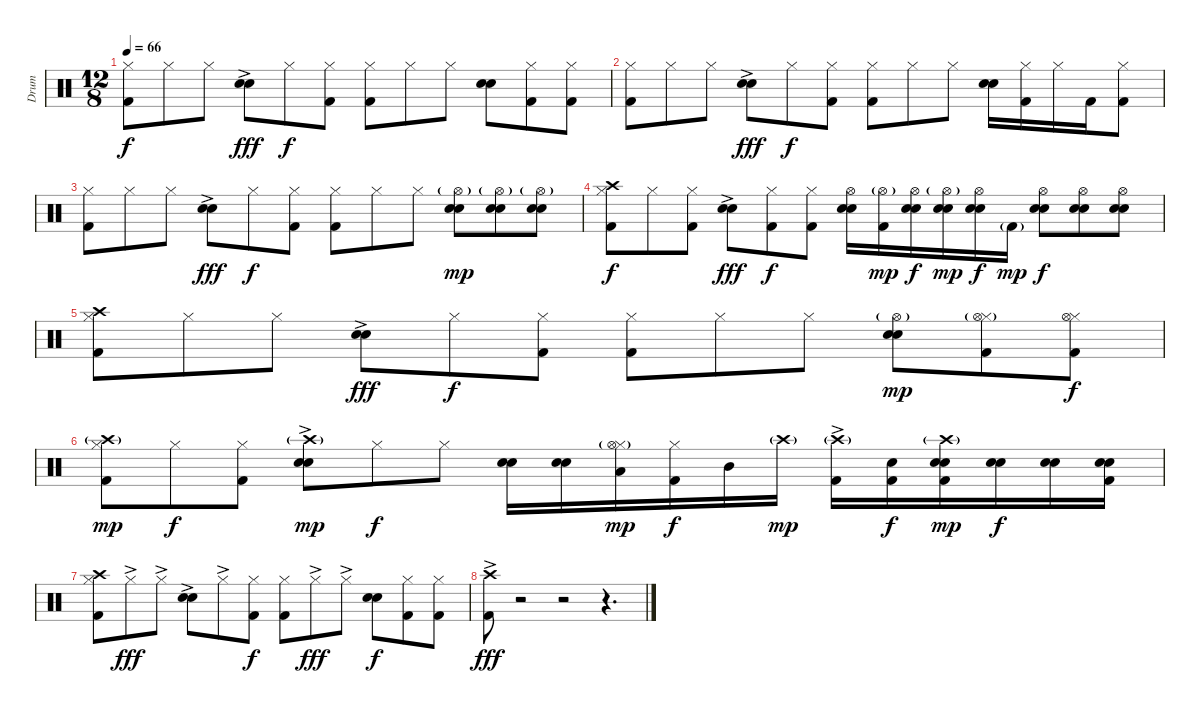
\track ("Drum" "Drum") {instrument percussion}
\staff {score}
\articulation defaults
\ts (12 8)
\tempo 66
\clef neutral
\ks c
("Hi-Hat (closed)" "Kick (hit) 2").8{dy f} "Hi-Hat (closed)".8 "Hi-Hat (closed)".8 ("Electric Snare (hit)"{ac} "Hand Clap (hit)").8{dy fff} "Hi-Hat (closed)".8{dy f} ("Hi-Hat (closed)" "Kick (hit) 2").8 ("Hi-Hat (closed)" "Kick (hit) 2").8 "Hi-Hat (closed)".8 "Hi-Hat (closed)".8 ("Electric Snare (hit)" "Hand Clap (hit)").8 ("Hi-Hat (closed)" "Kick (hit) 2").8 ("Hi-Hat (closed)" "Kick (hit) 2").8 |
("Hi-Hat (closed)" "Kick (hit) 2").8 "Hi-Hat (closed)".8 "Hi-Hat (closed)".8 ("Electric Snare (hit)"{ac} "Hand Clap (hit)").8{dy fff} "Hi-Hat (closed)".8{dy f} ("Hi-Hat (closed)" "Kick (hit) 2").8 ("Hi-Hat (closed)" "Kick (hit) 2").8 "Hi-Hat (closed)".8 "Hi-Hat (closed)".8 ("Electric Snare (hit)" "Hand Clap (hit)").16 ("Hi-Hat (closed)" "Kick (hit) 2").16 "Hi-Hat (closed)".16 "Kick (hit) 2".16 ("Hi-Hat (closed)" "Kick (hit) 2").8 |
("Hi-Hat (closed)" "Kick (hit) 2").8 "Hi-Hat (closed)".8 "Hi-Hat (closed)".8 ("Electric Snare (hit)"{ac} "Hand Clap (hit)").8{dy fff} "Hi-Hat (closed)".8{dy f} ("Hi-Hat (closed)" "Kick (hit) 2").8 ("Hi-Hat (closed)" "Kick (hit) 2").8 "Hi-Hat (closed)".8 "Hi-Hat (closed)".8 ("Electric Snare (hit)" "Hand Clap (hit)" "Hi-Hat (open)"{g}).8{dy mp} ("Electric Snare (hit)" "Hand Clap (hit)" "Hi-Hat (open)"{g}).8 ("Electric Snare (hit)" "Hand Clap (hit)" "Hi-Hat (open)"{g}).8 |
("Hi-Hat (closed)" "Kick (hit) 2" "Crash high (hit)").8{dy f} "Hi-Hat (closed)".8 ("Hi-Hat (closed)" "Kick (hit) 2").8 ("Electric Snare (hit)"{ac} "Hand Clap (hit)").8{dy fff} ("Hi-Hat (closed)" "Kick (hit) 2").8{dy f} ("Hi-Hat (closed)" "Kick (hit) 2").8 ("Electric Snare (hit)" "Hand Clap (hit)" "Hi-Hat (open)").16 ("Kick (hit) 2" "Hi-Hat (open)"{g}).16{dy mp} ("Electric Snare (hit)" "Hand Clap (hit)" "Hi-Hat (open)").16{dy f} ("Electric Snare (hit)" "Hand Clap (hit)" "Hi-Hat (open)"{g}).16{dy mp} ("Electric Snare (hit)" "Hand Clap (hit)" "Hi-Hat (open)").16{dy f} "Kick (hit) 2"{g}.16{dy mp} ("Electric Snare (hit)" "Hand Clap (hit)" "Hi-Hat (open)").8{dy f} ("Electric Snare (hit)" "Hand Clap (hit)" "Hi-Hat (open)").8 ("Electric Snare (hit)" "Hand Clap (hit)" "Hi-Hat (open)").8 |
("Hi-Hat (closed)" "Kick (hit) 2" "Crash high (hit)").8 "Hi-Hat (closed)".8 "Hi-Hat (closed)".8 ("Electric Snare (hit)"{ac} "Hand Clap (hit)").8{dy fff} "Hi-Hat (closed)".8{dy f} ("Hi-Hat (closed)" "Kick (hit) 2").8 ("Hi-Hat (closed)" "Kick (hit) 2").8 "Hi-Hat (closed)".8 "Hi-Hat (closed)".8 ("Electric Snare (hit)" "Hand Clap (hit)" "Hi-Hat (open)"{g}).8{dy mp} ("Hi-Hat (closed)" "Kick (hit) 2" "Hi-Hat (open)"{g}).8 ("Hi-Hat (closed)" "Kick (hit) 2" "Hi-Hat (open)").8{dy f} |
("Hi-Hat (closed)" "Kick (hit) 2" "Crash high (hit)"{g}).8{dy mp} "Hi-Hat (closed)".8{dy f} ("Hi-Hat (closed)" "Kick (hit) 2").8 ("Electric Snare (hit)"{ac} "Hand Clap (hit)" "Crash high (hit)"{g}).8{dy mp} "Hi-Hat (closed)".8{dy f} "Hi-Hat (closed)".8 ("Electric Snare (hit)" "Hand Clap (hit)").16 ("Electric Snare (hit)" "Hand Clap (hit)").16 ("Hi-Hat (closed)" "Low Tom (hit)" "Hi-Hat (open)"{g}).16{dy mp} ("Hi-Hat (closed)" "Kick (hit) 2").16{dy f} "Mid Tom (hit)".16 "Crash high (hit)"{g}.16{dy mp} ("Kick (hit) 2"{ac} "Crash high (hit)"{g}).16 ("Electric Snare (hit)" "Kick (hit) 2").16{dy f} ("Hand Clap (hit)" "Electric Snare (hit)" "Kick (hit) 2" "Crash high (hit)"{g}).16{dy mp} ("Hand Clap (hit)" "Electric Snare (hit)").16{dy f} ("Hand Clap (hit)" "Electric Snare (hit)").16 ("Hand Clap (hit)" "Electric Snare (hit)" "Kick (hit) 2").16 |
("Hi-Hat (closed)" "Kick (hit) 2" "Crash high (hit)").8 "Hi-Hat (closed)"{ac}.8{dy fff} "Hi-Hat (closed)"{ac}.8 ("Electric Snare (hit)"{ac} "Hand Clap (hit)").8 "Hi-Hat (closed)"{ac}.8 ("Hi-Hat (closed)" "Kick (hit) 2").8{dy f} ("Hi-Hat (closed)" "Kick (hit) 2").8 "Hi-Hat (closed)"{ac}.8{dy fff} "Hi-Hat (closed)"{ac}.8 ("Electric Snare (hit)" "Hand Clap (hit)").8{dy f} ("Hi-Hat (closed)" "Kick (hit) 2").8 ("Hi-Hat (closed)" "Kick (hit) 2").8 |
("Kick (hit) 2"{ac} "Crash high (hit)"{ac}).8{dy fff} r.2 r.2 r.4{d}
